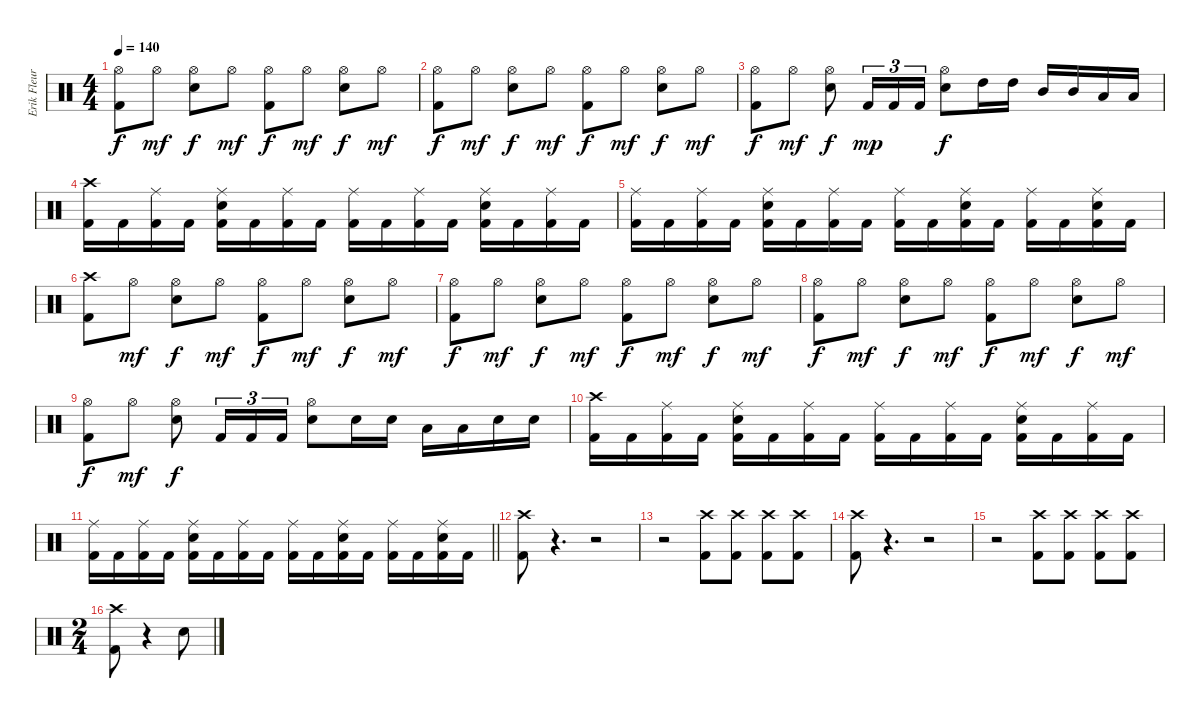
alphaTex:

\track ("Erik Fleuren" "Erik Fleur") {instrument percussion}
\staff {score}
\articulation defaults
\ts (4 4)
\tempo 140
\clef neutral
\ks c
("Hi-Hat (open)" "Kick (hit) 2").8{dy f} "Hi-Hat (open)".8{dy mf} ("Hi-Hat (open)" "Electric Snare (hit)").8{dy f} "Hi-Hat (open)".8{dy mf} ("Hi-Hat (open)" "Kick (hit) 2").8{dy f} "Hi-Hat (open)".8{dy mf} ("Hi-Hat (open)" "Electric Snare (hit)").8{dy f} "Hi-Hat (open)".8{dy mf} |
("Hi-Hat (open)" "Kick (hit) 2").8{dy f} "Hi-Hat (open)".8{dy mf} ("Hi-Hat (open)" "Electric Snare (hit)").8{dy f} "Hi-Hat (open)".8{dy mf} ("Hi-Hat (open)" "Kick (hit) 2").8{dy f} "Hi-Hat (open)".8{dy mf} ("Hi-Hat (open)" "Electric Snare (hit)").8{dy f} "Hi-Hat (open)".8{dy mf} |
("Hi-Hat (open)" "Kick (hit) 2").8{dy f} "Hi-Hat (open)".8{dy mf} ("Hi-Hat (open)" "Electric Snare (hit)").8{dy f} "Kick (hit) 2".16{tu (3 2) dy mp} "Kick (hit) 2".16{tu (3 2)} "Kick (hit) 2".16{tu (3 2)} ("Hi-Hat (open)" "Electric Snare (hit)").8{dy f} "High Tom (hit)".16 "High Tom (hit)".16 "Mid Tom (hit)".16 "Mid Tom (hit)".16 "Low Tom (hit)".16 "Low Tom (hit)".16 |
("Crash high (hit)" "Kick (hit) 2").16 "Kick (hit) 2".16 ("Ride (middle)" "Kick (hit) 2").16 "Kick (hit) 2".16 ("Ride (middle)" "Electric Snare (hit)" "Kick (hit) 2").16 "Kick (hit) 2".16 ("Ride (middle)" "Kick (hit) 2").16 "Kick (hit) 2".16 ("Ride (middle)" "Kick (hit) 2").16 "Kick (hit) 2".16 ("Ride (middle)" "Kick (hit) 2").16 "Kick (hit) 2".16 ("Ride (middle)" "Electric Snare (hit)" "Kick (hit) 2").16 "Kick (hit) 2".16 ("Ride (middle)" "Kick (hit) 2").16 "Kick (hit) 2".16 |
("Ride (middle)" "Kick (hit) 2").16 "Kick (hit) 2".16 ("Ride (middle)" "Kick (hit) 2").16 "Kick (hit) 2".16 ("Ride (middle)" "Electric Snare (hit)" "Kick (hit) 2").16 "Kick (hit) 2".16 ("Ride (middle)" "Kick (hit) 2").16 "Kick (hit) 2".16 ("Ride (middle)" "Kick (hit) 2").16 "Kick (hit) 2".16 ("Ride (middle)" "Electric Snare (hit)" "Kick (hit) 2").16 "Kick (hit) 2".16 ("Ride (middle)" "Kick (hit) 2").16 "Kick (hit) 2".16 ("Ride (middle)" "Electric Snare (hit)" "Kick (hit) 2").16 "Kick (hit) 2".16 |
("Crash high (hit)" "Kick (hit) 2").8 "Hi-Hat (open)".8{dy mf} ("Hi-Hat (open)" "Electric Snare (hit)").8{dy f} "Hi-Hat (open)".8{dy mf} ("Hi-Hat (open)" "Kick (hit) 2").8{dy f} "Hi-Hat (open)".8{dy mf} ("Hi-Hat (open)" "Electric Snare (hit)").8{dy f} "Hi-Hat (open)".8{dy mf} |
("Hi-Hat (open)" "Kick (hit) 2").8{dy f} "Hi-Hat (open)".8{dy mf} ("Hi-Hat (open)" "Electric Snare (hit)").8{dy f} "Hi-Hat (open)".8{dy mf} ("Hi-Hat (open)" "Kick (hit) 2").8{dy f} "Hi-Hat (open)".8{dy mf} ("Hi-Hat (open)" "Electric Snare (hit)").8{dy f} "Hi-Hat (open)".8{dy mf} |
("Hi-Hat (open)" "Kick (hit) 2").8{dy f} "Hi-Hat (open)".8{dy mf} ("Hi-Hat (open)" "Electric Snare (hit)").8{dy f} "Hi-Hat (open)".8{dy mf} ("Hi-Hat (open)" "Kick (hit) 2").8{dy f} "Hi-Hat (open)".8{dy mf} ("Hi-Hat (open)" "Electric Snare (hit)").8{dy f} "Hi-Hat (open)".8{dy mf} |
("Hi-Hat (open)" "Kick (hit) 2").8{dy f} "Hi-Hat (open)".8{dy mf} ("Hi-Hat (open)" "Electric Snare (hit)").8{dy f} "Kick (hit) 2".16{tu (3 2)} "Kick (hit) 2".16{tu (3 2)} "Kick (hit) 2".16{tu (3 2)} ("Hi-Hat (open)" "Electric Snare (hit)").8 "Electric Snare (hit)".16 "Electric Snare (hit)".16 "Low Tom (hit)".16 "Low Tom (hit)".16 "Electric Snare (hit)".16 "Electric Snare (hit)".16 |
("Crash high (hit)" "Kick (hit) 2").16 "Kick (hit) 2".16 ("Ride (middle)" "Kick (hit) 2").16 "Kick (hit) 2".16 ("Ride (middle)" "Electric Snare (hit)" "Kick (hit) 2").16 "Kick (hit) 2".16 ("Ride (middle)" "Kick (hit) 2").16 "Kick (hit) 2".16 ("Ride (middle)" "Kick (hit) 2").16 "Kick (hit) 2".16 ("Ride (middle)" "Kick (hit) 2").16 "Kick (hit) 2".16 ("Ride (middle)" "Electric Snare (hit)" "Kick (hit) 2").16 "Kick (hit) 2".16 ("Ride (middle)" "Kick (hit) 2").16 "Kick (hit) 2".16 |
\barLineRight lightlight
("Ride (middle)" "Kick (hit) 2").16 "Kick (hit) 2".16 ("Ride (middle)" "Kick (hit) 2").16 "Kick (hit) 2".16 ("Ride (middle)" "Electric Snare (hit)" "Kick (hit) 2").16 "Kick (hit) 2".16 ("Ride (middle)" "Kick (hit) 2").16 "Kick (hit) 2".16 ("Ride (middle)" "Kick (hit) 2").16 "Kick (hit) 2".16 ("Ride (middle)" "Electric Snare (hit)" "Kick (hit) 2").16 "Kick (hit) 2".16 ("Ride (middle)" "Kick (hit) 2").16 "Kick (hit) 2".16 ("Ride (middle)" "Electric Snare (hit)" "Kick (hit) 2").16 "Kick (hit) 2".16 |
("Crash high (hit)" "Kick (hit) 2").8 r.4{d volume 0} r.2 |
r.2 ("Crash high (hit)" "Kick (hit) 2").8{volume 13} ("Crash high (hit)" "Kick (hit) 2").8 ("Crash high (hit)" "Kick (hit) 2").8 ("Crash high (hit)" "Kick (hit) 2").8 |
("Crash high (hit)" "Kick (hit) 2").8 r.4{d volume 0} r.2 |
r.2 ("Crash high (hit)" "Kick (hit) 2").8{volume 13} ("Crash high (hit)" "Kick (hit) 2").8 ("Crash high (hit)" "Kick (hit) 2").8 ("Crash high (hit)" "Kick (hit) 2").8 |
\ts (2 4)
("Crash high (hit)" "Kick (hit) 2").8 r.4{volume 0} "Electric Snare (hit)".8{volume 13}
